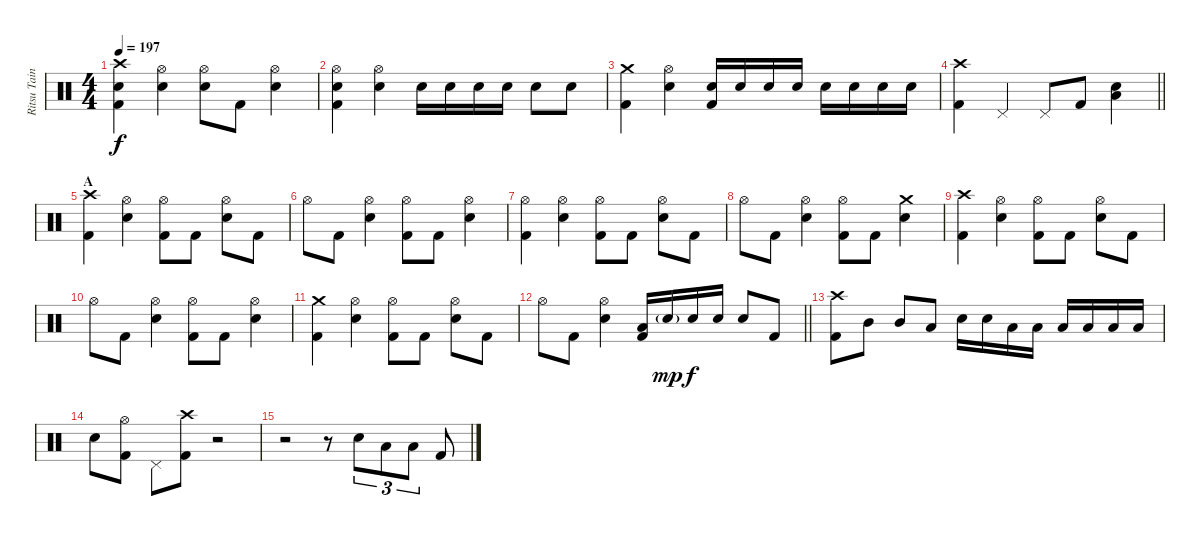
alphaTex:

\track ("Ritsu Tainaka" "Ritsu Tain") {instrument percussion}
\staff {score}
\articulation defaults
\ts (4 4)
\tempo 197
\clef neutral
\ks c
("Crash high (hit)" "Electric Snare (hit)" "Kick (hit) 2").4{dy f} ("Hi-Hat (open)" "Electric Snare (hit)").4 ("Hi-Hat (open)" "Electric Snare (hit)").8 "Kick (hit) 2".8 ("Hi-Hat (open)" "Electric Snare (hit)").4 |
("Hi-Hat (open)" "Electric Snare (hit)" "Kick (hit) 2").4 ("Hi-Hat (open)" "Electric Snare (hit)").4 "Electric Snare (hit)".16 "Electric Snare (hit)".16 "Electric Snare (hit)".16 "Electric Snare (hit)".16 "Electric Snare (hit)".8 "Electric Snare (hit)".8 |
("Crash medium (hit)" "Kick (hit) 2").4 ("Hi-Hat (open)" "Electric Snare (hit)").4 ("Electric Snare (hit)" "Kick (hit) 2").16 "Electric Snare (hit)".16 "Electric Snare (hit)".16 "Electric Snare (hit)".16 "Electric Snare (hit)".16 "Electric Snare (hit)".16 "Electric Snare (hit)".16 "Electric Snare (hit)".16 |
\barLineRight lightlight
("Crash high (hit)" "Kick (hit) 2").4 "Pedal Hi-Hat (hit)".4 "Pedal Hi-Hat (hit)".8 "Kick (hit) 2".8 ("Electric Snare (hit)" "Low Floor Tom (hit)").4 |
\section ("" "A")
("Crash high (hit)" "Kick (hit) 2").4 ("Hi-Hat (open)" "Electric Snare (hit)").4 ("Hi-Hat (open)" "Kick (hit) 2").8 "Kick (hit) 2".8 ("Hi-Hat (open)" "Electric Snare (hit)").8 "Kick (hit) 2".8 |
"Hi-Hat (open)".8 "Kick (hit) 2".8 ("Hi-Hat (open)" "Electric Snare (hit)").4 ("Hi-Hat (open)" "Kick (hit) 2").8 "Kick (hit) 2".8 ("Hi-Hat (open)" "Electric Snare (hit)").4 |
("Hi-Hat (open)" "Kick (hit) 2").4 ("Hi-Hat (open)" "Electric Snare (hit)").4 ("Hi-Hat (open)" "Kick (hit) 2").8 "Kick (hit) 2".8 ("Hi-Hat (open)" "Electric Snare (hit)").8 "Kick (hit) 2".8 |
"Hi-Hat (open)".8 "Kick (hit) 2".8 ("Hi-Hat (open)" "Electric Snare (hit)").4 ("Hi-Hat (open)" "Kick (hit) 2").8 "Kick (hit) 2".8 ("Crash medium (hit)" "Electric Snare (hit)").4 |
("Crash high (hit)" "Kick (hit) 2").4 ("Hi-Hat (open)" "Electric Snare (hit)").4 ("Hi-Hat (open)" "Kick (hit) 2").8 "Kick (hit) 2".8 ("Hi-Hat (open)" "Electric Snare (hit)").8 "Kick (hit) 2".8 |
"Hi-Hat (open)".8 "Kick (hit) 2".8 ("Hi-Hat (open)" "Electric Snare (hit)").4 ("Hi-Hat (open)" "Kick (hit) 2").8 "Kick (hit) 2".8 ("Hi-Hat (open)" "Electric Snare (hit)").4 |
("Crash medium (hit)" "Kick (hit) 2").4 ("Hi-Hat (open)" "Electric Snare (hit)").4 ("Hi-Hat (open)" "Kick (hit) 2").8 "Kick (hit) 2".8 ("Hi-Hat (open)" "Electric Snare (hit)").8 "Kick (hit) 2".8 |
\barLineRight lightlight "Hi-Hat (open)".8 "Kick (hit) 2".8
("Hi-Hat (open)" "Electric Snare (hit)").4 ("Low Tom (hit)" "Kick (hit) 2").16 "Electric Snare (hit)"{g}.16{dy mp} "Electric Snare (hit)".16{dy f} "Electric Snare (hit)".16 "Electric Snare (hit)".8 "Kick (hit) 2".8 |
("Crash high (hit)" "Kick (hit) 2").8 "Mid Tom (hit)".8 "Mid Tom (hit)".8 "Low Tom (hit)".8 "Electric Snare (hit)".16 "Electric Snare (hit)".16 "Low Tom (hit)".16 "Low Tom (hit)".16 "Low Floor Tom (hit)".16 "Low Floor Tom (hit)".16 "Low Floor Tom (hit)".16 "Low Floor Tom (hit)".16 |
"Electric Snare (hit)".8 ("Hi-Hat (open)" "Kick (hit) 2").8 "Pedal Hi-Hat (hit)".8 ("Crash high (hit)" "Kick (hit) 2").8 r.2 |
r.2 r.8 "Electric Snare (hit)".8{tu (3 2)} "Low Tom (hit)".8{tu (3 2)} "Low Floor Tom (hit)".8{tu (3 2)} "Kick (hit) 2".8
